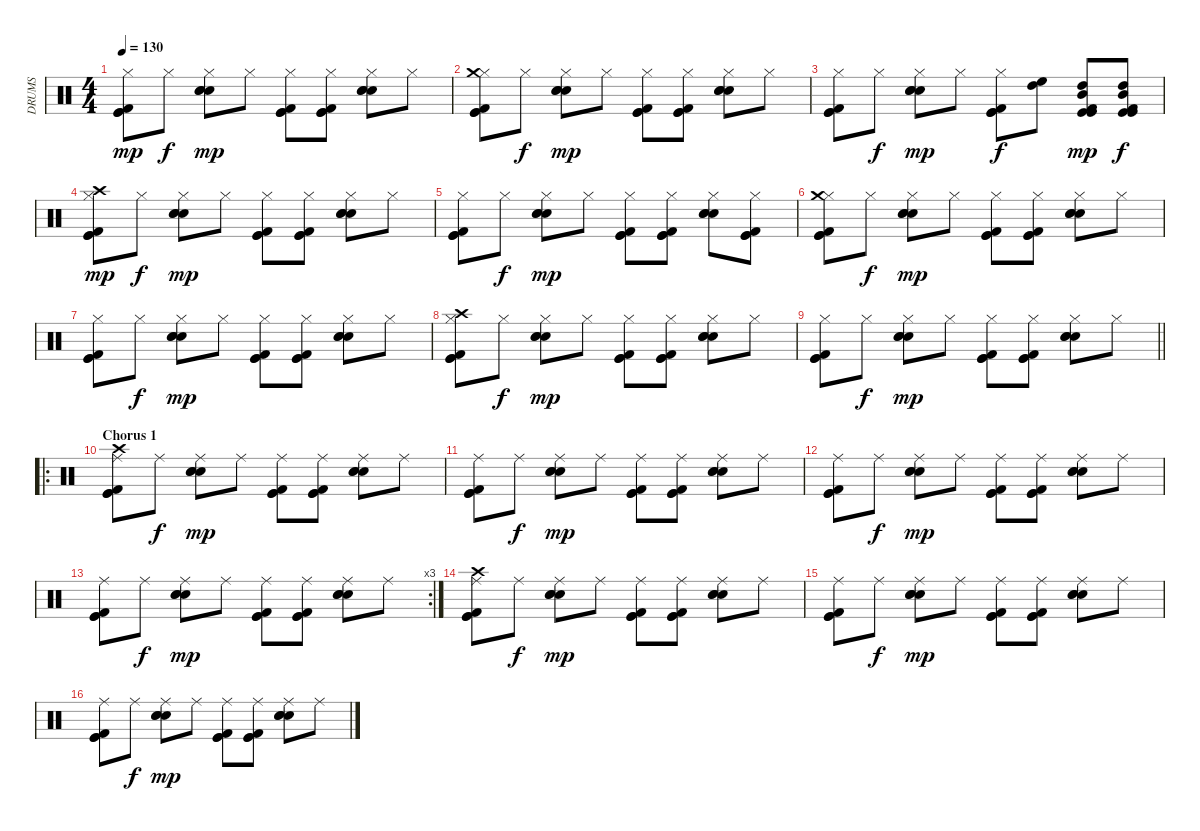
\track ("DRUMS" "DRUMS") {instrument percussion}
\staff {score}
\articulation defaults
\ts (4 4)
\tempo 130
\clef neutral
\ks c
("Hi-Hat (closed)" "Kick (hit) 2" "Kick (hit)" "Kick (hit)").8{dy mp} "Hi-Hat (closed)".8{dy f} ("Hi-Hat (closed)" "Electric Snare (hit)" "Snare (hit) 2" "Snare (hit) 2").8{dy mp} "Hi-Hat (closed)".8 ("Hi-Hat (closed)" "Kick (hit) 2" "Kick (hit)" "Kick (hit)").8 ("Hi-Hat (closed)" "Kick (hit) 2" "Kick (hit)" "Kick (hit)").8 ("Hi-Hat (closed)" "Electric Snare (hit)" "Snare (hit) 2" "Snare (hit) 2").8 "Hi-Hat (closed)".8 |
("Hi-Hat (closed)" "Kick (hit) 2" "Kick (hit)" "Kick (hit)" "Crash medium (hit)").8 "Hi-Hat (closed)".8{dy f} ("Hi-Hat (closed)" "Electric Snare (hit)" "Snare (hit) 2" "Snare (hit) 2").8{dy mp} "Hi-Hat (closed)".8 ("Hi-Hat (closed)" "Kick (hit) 2" "Kick (hit)" "Kick (hit)").8 ("Hi-Hat (closed)" "Kick (hit) 2" "Kick (hit)" "Kick (hit)").8 ("Hi-Hat (closed)" "Electric Snare (hit)" "Snare (hit) 2" "Snare (hit) 2").8 "Hi-Hat (closed)".8 |
("Hi-Hat (closed)" "Kick (hit) 2" "Kick (hit)" "Kick (hit)").8 "Hi-Hat (closed)".8{dy f} ("Hi-Hat (closed)" "Electric Snare (hit)" "Snare (hit) 2" "Snare (hit) 2").8{dy mp} "Hi-Hat (closed)".8 ("Hi-Hat (closed)" "Kick (hit) 2" "Kick (hit)" "Kick (hit)").8{dy f} ("High Floor Tom (hit)" "High Tom (hit)").8 ("Kick (hit) 2" "Kick (hit)" "Kick (hit)" "High Tom (hit)" "Mid Tom (hit)").8{dy mp} ("Kick (hit) 2" "Kick (hit)" "Kick (hit)" "High Tom (hit)" "Mid Tom (hit)").8{dy f} |
("Hi-Hat (closed)" "Kick (hit) 2" "Kick (hit)" "Kick (hit)" "Crash high (hit)").8{dy mp} "Hi-Hat (closed)".8{dy f} ("Hi-Hat (closed)" "Electric Snare (hit)" "Snare (hit) 2" "Snare (hit) 2").8{dy mp} "Hi-Hat (closed)".8 ("Hi-Hat (closed)" "Kick (hit) 2" "Kick (hit)" "Kick (hit)").8 ("Hi-Hat (closed)" "Kick (hit) 2" "Kick (hit)" "Kick (hit)").8 ("Hi-Hat (closed)" "Electric Snare (hit)" "Snare (hit) 2" "Snare (hit) 2").8 "Hi-Hat (closed)".8 |
("Hi-Hat (closed)" "Kick (hit) 2" "Kick (hit)" "Kick (hit)").8 "Hi-Hat (closed)".8{dy f} ("Hi-Hat (closed)" "Electric Snare (hit)" "Snare (hit) 2" "Snare (hit) 2").8{dy mp} "Hi-Hat (closed)".8 ("Hi-Hat (closed)" "Kick (hit) 2" "Kick (hit)" "Kick (hit)").8 ("Hi-Hat (closed)" "Kick (hit) 2" "Kick (hit)" "Kick (hit)").8 ("Hi-Hat (closed)" "Electric Snare (hit)" "Snare (hit) 2" "Snare (hit) 2").8 ("Hi-Hat (closed)" "Kick (hit) 2" "Kick (hit)" "Kick (hit)").8 |
("Hi-Hat (closed)" "Kick (hit) 2" "Kick (hit)" "Kick (hit)" "Crash medium (hit)").8 "Hi-Hat (closed)".8{dy f} ("Hi-Hat (closed)" "Electric Snare (hit)" "Snare (hit) 2" "Snare (hit) 2").8{dy mp} "Hi-Hat (closed)".8 ("Hi-Hat (closed)" "Kick (hit) 2" "Kick (hit)" "Kick (hit)").8 ("Hi-Hat (closed)" "Kick (hit) 2" "Kick (hit)" "Kick (hit)").8 ("Hi-Hat (closed)" "Electric Snare (hit)" "Snare (hit) 2" "Snare (hit) 2").8 "Hi-Hat (closed)".8 |
("Hi-Hat (closed)" "Kick (hit) 2" "Kick (hit)" "Kick (hit)").8 "Hi-Hat (closed)".8{dy f} ("Hi-Hat (closed)" "Electric Snare (hit)" "Snare (hit) 2" "Snare (hit) 2").8{dy mp} "Hi-Hat (closed)".8 ("Hi-Hat (closed)" "Kick (hit) 2" "Kick (hit)" "Kick (hit)").8 ("Hi-Hat (closed)" "Kick (hit) 2" "Kick (hit)" "Kick (hit)").8 ("Hi-Hat (closed)" "Electric Snare (hit)" "Snare (hit) 2" "Snare (hit) 2").8 "Hi-Hat (closed)".8 |
("Hi-Hat (closed)" "Kick (hit) 2" "Kick (hit)" "Kick (hit)" "Crash high (hit)").8 "Hi-Hat (closed)".8{dy f} ("Hi-Hat (closed)" "Electric Snare (hit)" "Snare (hit) 2" "Snare (hit) 2").8{dy mp} "Hi-Hat (closed)".8 ("Hi-Hat (closed)" "Kick (hit) 2" "Kick (hit)" "Kick (hit)").8 ("Hi-Hat (closed)" "Kick (hit) 2" "Kick (hit)" "Kick (hit)").8 ("Hi-Hat (closed)" "Electric Snare (hit)" "Snare (hit) 2" "Snare (hit) 2").8 "Hi-Hat (closed)".8 |
\barLineRight lightlight
("Hi-Hat (closed)" "Kick (hit) 2" "Kick (hit)" "Kick (hit)").8 "Hi-Hat (closed)".8{dy f} ("Hi-Hat (closed)" "Electric Snare (hit)" "Snare (hit) 2" "Snare (hit) 2").8{dy mp} "Hi-Hat (closed)".8 ("Hi-Hat (closed)" "Kick (hit) 2" "Kick (hit)" "Kick (hit)").8 ("Hi-Hat (closed)" "Kick (hit) 2" "Kick (hit)" "Kick (hit)").8 ("Hi-Hat (closed)" "Electric Snare (hit)" "Snare (hit) 2" "Snare (hit) 2").8 "Hi-Hat (closed)".8 |
\ro
\section ("" "Chorus 1")
("Ride (middle)" "Kick (hit) 2" "Kick (hit)" "Kick (hit)" "Crash high (hit)").8 "Ride (middle)".8{dy f} ("Ride (middle)" "Electric Snare (hit)" "Snare (hit) 2" "Snare (hit) 2").8{dy mp} "Ride (middle)".8 ("Ride (middle)" "Kick (hit) 2" "Kick (hit)" "Kick (hit)").8 ("Ride (middle)" "Kick (hit) 2" "Kick (hit)" "Kick (hit)").8 ("Ride (middle)" "Electric Snare (hit)" "Snare (hit) 2" "Snare (hit) 2").8 "Ride (middle)".8 |
("Ride (middle)" "Kick (hit) 2" "Kick (hit)" "Kick (hit)").8 "Ride (middle)".8{dy f} ("Ride (middle)" "Electric Snare (hit)" "Snare (hit) 2" "Snare (hit) 2").8{dy mp} "Ride (middle)".8 ("Ride (middle)" "Kick (hit) 2" "Kick (hit)" "Kick (hit)").8 ("Ride (middle)" "Kick (hit) 2" "Kick (hit)" "Kick (hit)").8 ("Ride (middle)" "Electric Snare (hit)" "Snare (hit) 2" "Snare (hit) 2").8 "Ride (middle)".8 |
("Ride (middle)" "Kick (hit) 2" "Kick (hit)" "Kick (hit)").8 "Ride (middle)".8{dy f} ("Ride (middle)" "Electric Snare (hit)" "Snare (hit) 2" "Snare (hit) 2").8{dy mp} "Ride (middle)".8 ("Ride (middle)" "Kick (hit) 2" "Kick (hit)" "Kick (hit)").8 ("Ride (middle)" "Kick (hit) 2" "Kick (hit)" "Kick (hit)").8 ("Ride (middle)" "Electric Snare (hit)" "Snare (hit) 2" "Snare (hit) 2").8 "Ride (middle)".8 |
\rc 3
("Ride (middle)" "Kick (hit) 2" "Kick (hit)" "Kick (hit)").8 "Ride (middle)".8{dy f} ("Ride (middle)" "Electric Snare (hit)" "Snare (hit) 2" "Snare (hit) 2").8{dy mp} "Ride (middle)".8 ("Ride (middle)" "Kick (hit) 2" "Kick (hit)" "Kick (hit)").8 ("Ride (middle)" "Kick (hit) 2" "Kick (hit)" "Kick (hit)").8 ("Ride (middle)" "Electric Snare (hit)" "Snare (hit) 2" "Snare (hit) 2").8 "Ride (middle)".8 |
("Ride (middle)" "Kick (hit) 2" "Kick (hit)" "Kick (hit)" "Crash high (hit)").8 "Ride (middle)".8{dy f} ("Ride (middle)" "Electric Snare (hit)" "Snare (hit) 2" "Snare (hit) 2").8{dy mp} "Ride (middle)".8 ("Ride (middle)" "Kick (hit) 2" "Kick (hit)" "Kick (hit)").8 ("Ride (middle)" "Kick (hit) 2" "Kick (hit)" "Kick (hit)").8 ("Ride (middle)" "Electric Snare (hit)" "Snare (hit) 2" "Snare (hit) 2").8 "Ride (middle)".8 |
("Ride (middle)" "Kick (hit) 2" "Kick (hit)" "Kick (hit)").8 "Ride (middle)".8{dy f} ("Ride (middle)" "Electric Snare (hit)" "Snare (hit) 2" "Snare (hit) 2").8{dy mp} "Ride (middle)".8 ("Ride (middle)" "Kick (hit) 2" "Kick (hit)" "Kick (hit)").8 ("Ride (middle)" "Kick (hit) 2" "Kick (hit)" "Kick (hit)").8 ("Ride (middle)" "Electric Snare (hit)" "Snare (hit) 2" "Snare (hit) 2").8 "Ride (middle)".8 |
("Ride (middle)" "Kick (hit) 2" "Kick (hit)" "Kick (hit)").8 "Ride (middle)".8{dy f} ("Ride (middle)" "Electric Snare (hit)" "Snare (hit) 2" "Snare (hit) 2").8{dy mp} "Ride (middle)".8 ("Ride (middle)" "Kick (hit) 2" "Kick (hit)" "Kick (hit)").8 ("Ride (middle)" "Kick (hit) 2" "Kick (hit)" "Kick (hit)").8 ("Ride (middle)" "Electric Snare (hit)" "Snare (hit) 2" "Snare (hit) 2").8 "Ride (middle)".8
